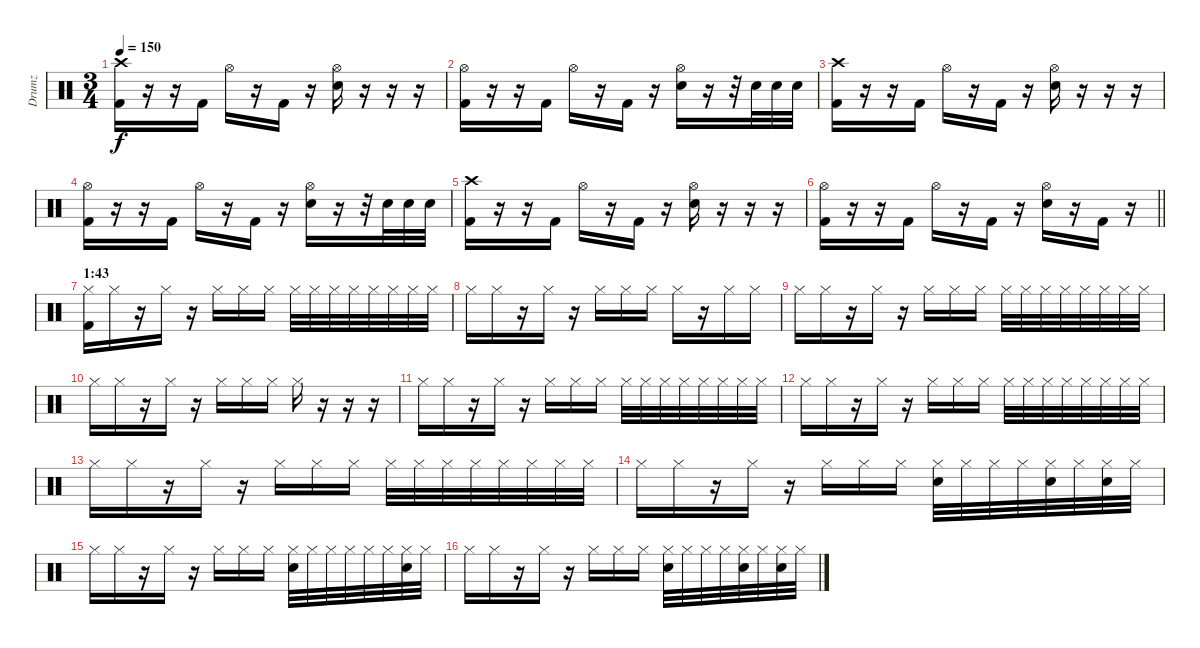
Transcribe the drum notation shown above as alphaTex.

\track ("Drumz" "Drumz") {instrument percussion}
\staff {score}
\articulation defaults
\ts (3 4)
\tempo 150
\clef neutral
\ks c
("Crash high (hit)" "Kick (hit) 2").16{dy f} r.16 r.16 "Kick (hit) 2".16 "Hi-Hat (open)".16 r.16 "Kick (hit) 2".16 r.16 ("Hi-Hat (open)" "Electric Snare (hit)").16 r.16 r.16 r.16 |
("Hi-Hat (open)" "Kick (hit) 2").16 r.16 r.16 "Kick (hit) 2".16 "Hi-Hat (open)".16 r.16 "Kick (hit) 2".16 r.16 ("Hi-Hat (open)" "Electric Snare (hit)").16 r.16 r.32 "Electric Snare (hit)".32 "Electric Snare (hit)".32 "Electric Snare (hit)".32 |
("Crash high (hit)" "Kick (hit) 2").16 r.16 r.16 "Kick (hit) 2".16 "Hi-Hat (open)".16 r.16 "Kick (hit) 2".16 r.16 ("Hi-Hat (open)" "Electric Snare (hit)").16 r.16 r.16 r.16 |
("Hi-Hat (open)" "Kick (hit) 2").16 r.16 r.16 "Kick (hit) 2".16 "Hi-Hat (open)".16 r.16 "Kick (hit) 2".16 r.16 ("Hi-Hat (open)" "Electric Snare (hit)").16 r.16 r.32 "Electric Snare (hit)".32 "Electric Snare (hit)".32 "Electric Snare (hit)".32 |
("Crash high (hit)" "Kick (hit) 2").16 r.16 r.16 "Kick (hit) 2".16 "Hi-Hat (open)".16 r.16 "Kick (hit) 2".16 r.16 ("Hi-Hat (open)" "Electric Snare (hit)").16 r.16 r.16 r.16 |
\barLineRight lightlight
("Hi-Hat (open)" "Kick (hit) 2").16 r.16 r.16 "Kick (hit) 2".16 "Hi-Hat (open)".16 r.16 "Kick (hit) 2".16 r.16 ("Hi-Hat (open)" "Electric Snare (hit)").16 r.16 "Kick (hit) 2".16 r.16 |
\section ("" "1:43")
("Hi-Hat (closed)" "Kick (hit) 2").16 "Hi-Hat (closed)".16 r.16 "Hi-Hat (closed)".16 r.16 "Hi-Hat (closed)".16 "Hi-Hat (closed)".16 "Hi-Hat (closed)".16 "Hi-Hat (closed)".32 "Hi-Hat (closed)".32 "Hi-Hat (closed)".32 "Hi-Hat (closed)".32 "Hi-Hat (closed)".32 "Hi-Hat (closed)".32 "Hi-Hat (closed)".32 "Hi-Hat (closed)".32 |
"Hi-Hat (closed)".16 "Hi-Hat (closed)".16 r.16 "Hi-Hat (closed)".16 r.16 "Hi-Hat (closed)".16 "Hi-Hat (closed)".16 "Hi-Hat (closed)".16 "Hi-Hat (closed)".16 r.16 "Hi-Hat (closed)".16 "Hi-Hat (closed)".16 |
"Hi-Hat (closed)".16 "Hi-Hat (closed)".16 r.16 "Hi-Hat (closed)".16 r.16 "Hi-Hat (closed)".16 "Hi-Hat (closed)".16 "Hi-Hat (closed)".16 "Hi-Hat (closed)".32 "Hi-Hat (closed)".32 "Hi-Hat (closed)".32 "Hi-Hat (closed)".32 "Hi-Hat (closed)".32 "Hi-Hat (closed)".32 "Hi-Hat (closed)".32 "Hi-Hat (closed)".32 |
"Hi-Hat (closed)".16 "Hi-Hat (closed)".16 r.16 "Hi-Hat (closed)".16 r.16 "Hi-Hat (closed)".16 "Hi-Hat (closed)".16 "Hi-Hat (closed)".16 "Hi-Hat (closed)".16 r.16 r.16 r.16 |
"Hi-Hat (closed)".16 "Hi-Hat (closed)".16 r.16 "Hi-Hat (closed)".16 r.16 "Hi-Hat (closed)".16 "Hi-Hat (closed)".16 "Hi-Hat (closed)".16 "Hi-Hat (closed)".32 "Hi-Hat (closed)".32 "Hi-Hat (closed)".32 "Hi-Hat (closed)".32 "Hi-Hat (closed)".32 "Hi-Hat (closed)".32 "Hi-Hat (closed)".32 "Hi-Hat (closed)".32 |
"Hi-Hat (closed)".16 "Hi-Hat (closed)".16 r.16 "Hi-Hat (closed)".16 r.16 "Hi-Hat (closed)".16 "Hi-Hat (closed)".16 "Hi-Hat (closed)".16 "Hi-Hat (closed)".32 "Hi-Hat (closed)".32 "Hi-Hat (closed)".32 "Hi-Hat (closed)".32 "Hi-Hat (closed)".32 "Hi-Hat (closed)".32 "Hi-Hat (closed)".32 "Hi-Hat (closed)".32 |
"Hi-Hat (closed)".16 "Hi-Hat (closed)".16 r.16 "Hi-Hat (closed)".16 r.16 "Hi-Hat (closed)".16 "Hi-Hat (closed)".16 "Hi-Hat (closed)".16 "Hi-Hat (closed)".32 "Hi-Hat (closed)".32 "Hi-Hat (closed)".32 "Hi-Hat (closed)".32 "Hi-Hat (closed)".32 "Hi-Hat (closed)".32 "Hi-Hat (closed)".32 "Hi-Hat (closed)".32 |
"Hi-Hat (closed)".16 "Hi-Hat (closed)".16 r.16 "Hi-Hat (closed)".16 r.16 "Hi-Hat (closed)".16 "Hi-Hat (closed)".16 "Hi-Hat (closed)".16 ("Hi-Hat (closed)" "Snare (hit) 2").32 "Hi-Hat (closed)".32 "Hi-Hat (closed)".32 "Hi-Hat (closed)".32 ("Hi-Hat (closed)" "Snare (hit) 2").32 "Hi-Hat (closed)".32 ("Hi-Hat (closed)" "Snare (hit) 2").32 "Hi-Hat (closed)".32 |
"Hi-Hat (closed)".16 "Hi-Hat (closed)".16 r.16 "Hi-Hat (closed)".16 r.16 "Hi-Hat (closed)".16 "Hi-Hat (closed)".16 "Hi-Hat (closed)".16 ("Hi-Hat (closed)" "Snare (hit) 2").32 "Hi-Hat (closed)".32 "Hi-Hat (closed)".32 "Hi-Hat (closed)".32 "Hi-Hat (closed)".32 "Hi-Hat (closed)".32 ("Hi-Hat (closed)" "Snare (hit) 2").32 "Hi-Hat (closed)".32 |
"Hi-Hat (closed)".16 "Hi-Hat (closed)".16 r.16 "Hi-Hat (closed)".16 r.16 "Hi-Hat (closed)".16 "Hi-Hat (closed)".16 "Hi-Hat (closed)".16 ("Hi-Hat (closed)" "Snare (hit) 2").32 "Hi-Hat (closed)".32 "Hi-Hat (closed)".32 "Hi-Hat (closed)".32 ("Hi-Hat (closed)" "Snare (hit) 2").32 "Hi-Hat (closed)".32 ("Hi-Hat (closed)" "Snare (hit) 2").32 "Hi-Hat (closed)".32
